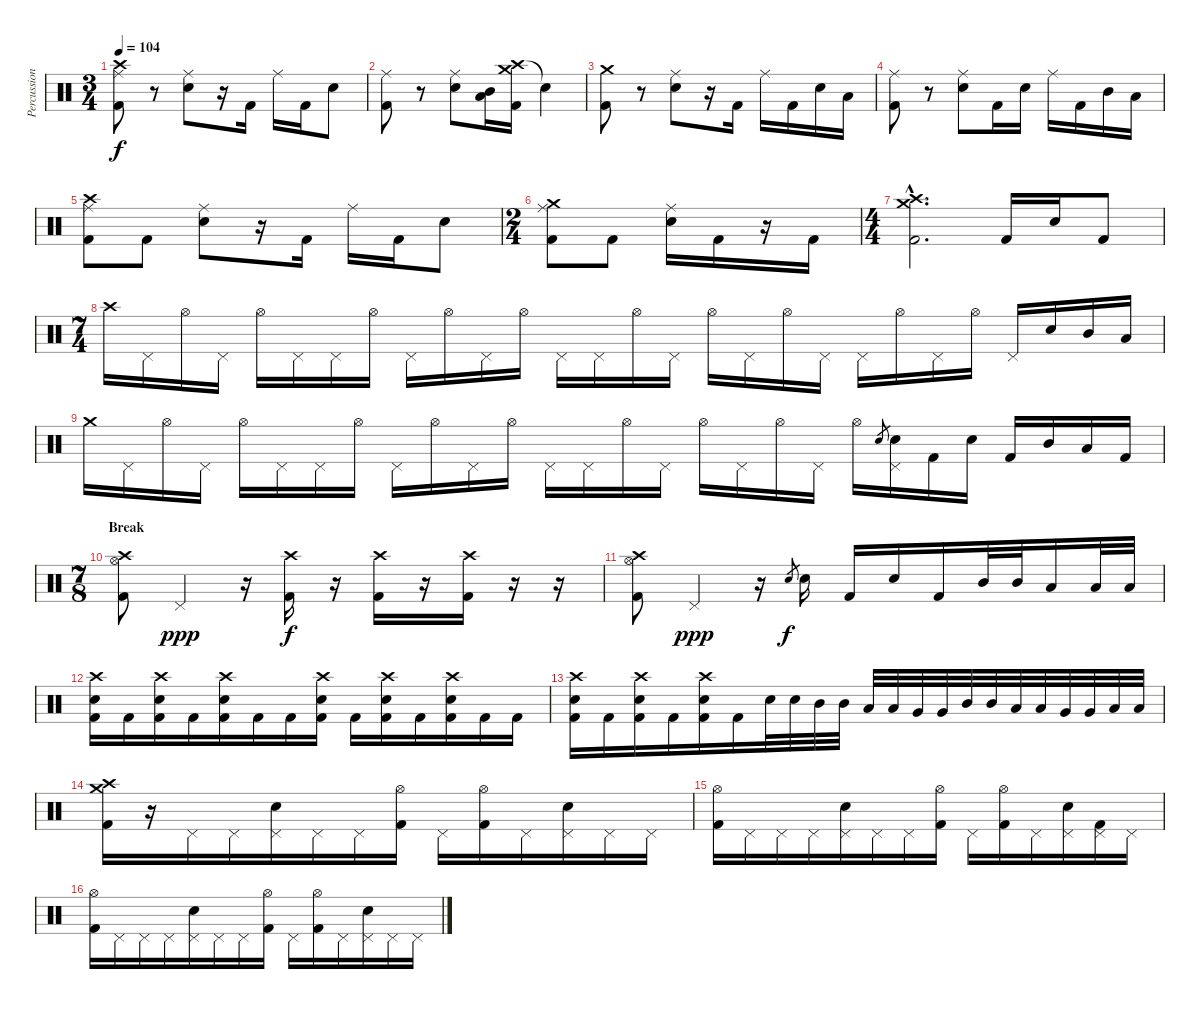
\track ("Percussions" "Percussion") {instrument percussion}
\staff {score}
\articulation defaults
\ts (3 4)
\tempo 104
\clef neutral
\ks c
("Crash high (hit)" "Ride (middle)" "Kick (hit) 2").8{dy f} r.8 ("Ride (middle)" "Electric Snare (hit)").8 r.16 "Kick (hit) 2".16 "Ride (middle)".16 "Kick (hit) 2".16 "Electric Snare (hit)".8 |
("Ride (middle)" "Kick (hit) 2").8 r.8 ("Ride (middle)" "Electric Snare (hit)").8 ("Mid Tom (hit)" "Low Tom (hit)").16 ("Crash high (hit)" "Crash medium (hit)" "Kick (hit) 2").16 "Snare (hit)"{t}.4 |
("Crash medium (hit)" "Kick (hit) 2").8 r.8 ("Ride (middle)" "Electric Snare (hit)").8 r.16 "Kick (hit) 2".16 "Ride (middle)".16 "Kick (hit) 2".16 "Electric Snare (hit)".16 "Low Tom (hit)".16 |
("Ride (middle)" "Kick (hit) 2").8 r.8 ("Ride (middle)" "Electric Snare (hit)").8 "Kick (hit) 2".16 "Electric Snare (hit)".16 "Ride (middle)".16 "Kick (hit) 2".16 "Mid Tom (hit)".16 "Low Tom (hit)".16 |
("Crash high (hit)" "Ride (middle)" "Kick (hit) 2").8 "Kick (hit) 2".8 ("Ride (middle)" "Electric Snare (hit)").8 r.16 "Kick (hit) 2".16 "Ride (middle)".16 "Kick (hit) 2".16 "Electric Snare (hit)".8 |
\ts (2 4)
("Crash medium (hit)" "Ride (middle)" "Kick (hit) 2").8 "Kick (hit) 2".8 ("Ride (middle)" "Electric Snare (hit)").16 "Kick (hit) 2".16 r.16 "Kick (hit) 2".16 |
\ts (4 4)
("Crash high (hit)"{hac} "Crash medium (hit)"{hac} "Kick (hit) 2"{hac}).2{d} "Kick (hit) 2".16 "Electric Snare (hit)".16 "Kick (hit) 2".8 |
\ts (7 4)
"Crash high (hit)".16 "Pedal Hi-Hat (hit)".16 "Hi-Hat (open)".16 "Pedal Hi-Hat (hit)".16 "Hi-Hat (open)".16 "Pedal Hi-Hat (hit)".16 "Pedal Hi-Hat (hit)".16 "Hi-Hat (open)".16 "Pedal Hi-Hat (hit)".16 "Hi-Hat (open)".16 "Pedal Hi-Hat (hit)".16 "Hi-Hat (open)".16 "Pedal Hi-Hat (hit)".16 "Pedal Hi-Hat (hit)".16 "Hi-Hat (open)".16 "Pedal Hi-Hat (hit)".16 "Hi-Hat (open)".16 "Pedal Hi-Hat (hit)".16 "Hi-Hat (open)".16 "Pedal Hi-Hat (hit)".16 "Pedal Hi-Hat (hit)".16 "Hi-Hat (open)".16 "Pedal Hi-Hat (hit)".16 "Hi-Hat (open)".16 "Pedal Hi-Hat (hit)".16 "Electric Snare (hit)".16 "Mid Tom (hit)".16 "Low Tom (hit)".16 |
"Crash medium (hit)".16 "Pedal Hi-Hat (hit)".16 "Hi-Hat (open)".16 "Pedal Hi-Hat (hit)".16 "Hi-Hat (open)".16 "Pedal Hi-Hat (hit)".16 "Pedal Hi-Hat (hit)".16 "Hi-Hat (open)".16 "Pedal Hi-Hat (hit)".16 "Hi-Hat (open)".16 "Pedal Hi-Hat (hit)".16 "Hi-Hat (open)".16 "Pedal Hi-Hat (hit)".16 "Pedal Hi-Hat (hit)".16 "Hi-Hat (open)".16 "Pedal Hi-Hat (hit)".16 "Hi-Hat (open)".16 "Pedal Hi-Hat (hit)".16 "Hi-Hat (open)".16 "Pedal Hi-Hat (hit)".16 "Hi-Hat (open)".16 "Electric Snare (hit)".8{gr} ("Pedal Hi-Hat (hit)" "Electric Snare (hit)").16 "Kick (hit) 2".16 "Electric Snare (hit)".16 "Kick (hit) 2".16 "Mid Tom (hit)".16 "Low Tom (hit)".16 "Kick (hit) 2".16 |
\ts (7 8)
\section ("" "Break")
("Crash high (hit)" "Hi-Hat (open)" "Kick (hit) 2").8 "Pedal Hi-Hat (hit)".4{dy ppp} r.16 ("Crash high (hit)" "Kick (hit) 2").16{dy f} r.16 ("Crash high (hit)" "Kick (hit) 2").16 r.16 ("Crash high (hit)" "Kick (hit) 2").16 r.16 r.16 |
("Crash high (hit)" "Hi-Hat (open)" "Kick (hit) 2").8 "Pedal Hi-Hat (hit)".4{dy ppp} r.16 "Electric Snare (hit)".8{gr dy f} "Electric Snare (hit)".16 "Kick (hit) 2".16 "Electric Snare (hit)".16 "Kick (hit) 2".16 "Mid Tom (hit)".32 "Mid Tom (hit)".32 "Low Tom (hit)".16 "Low Tom (hit)".32 "Low Tom (hit)".32 |
("Crash high (hit)" "Electric Snare (hit)" "Kick (hit) 2").16 "Kick (hit) 2".16 ("Crash high (hit)" "Electric Snare (hit)" "Kick (hit) 2").16 "Kick (hit) 2".16 ("Crash high (hit)" "Electric Snare (hit)" "Kick (hit) 2").16 "Kick (hit) 2".16 "Kick (hit) 2".16 ("Crash high (hit)" "Electric Snare (hit)" "Kick (hit) 2").16 "Kick (hit) 2".16 ("Crash high (hit)" "Electric Snare (hit)" "Kick (hit) 2").16 "Kick (hit) 2".16 ("Crash high (hit)" "Electric Snare (hit)" "Kick (hit) 2").16 "Kick (hit) 2".16 "Kick (hit) 2".16 |
("Crash high (hit)" "Electric Snare (hit)" "Kick (hit) 2").16 "Kick (hit) 2".16 ("Crash high (hit)" "Electric Snare (hit)" "Kick (hit) 2").16 "Kick (hit) 2".16 ("Crash high (hit)" "Electric Snare (hit)" "Kick (hit) 2").16 "Kick (hit) 2".16 "Electric Snare (hit)".32 "Electric Snare (hit)".32 "Mid Tom (hit)".32 "Mid Tom (hit)".32 "Low Tom (hit)".32 "Low Tom (hit)".32 "Very Low Tom (hit)".32 "Very Low Tom (hit)".32 "Mid Tom (hit)".32 "Mid Tom (hit)".32 "Low Tom (hit)".32 "Low Tom (hit)".32 "Very Low Tom (hit)".32 "Very Low Tom (hit)".32 "Low Floor Tom (hit)".32 "Low Floor Tom (hit)".32 |
("Crash medium (hit)" "Crash high (hit)" "Kick (hit) 2").16 r.16 "Pedal Hi-Hat (hit)".16 "Pedal Hi-Hat (hit)".16 ("Pedal Hi-Hat (hit)" "Electric Snare (hit)").16 "Pedal Hi-Hat (hit)".16 "Pedal Hi-Hat (hit)".16 ("Hi-Hat (open)" "Kick (hit) 2").16 "Pedal Hi-Hat (hit)".16 ("Hi-Hat (open)" "Kick (hit) 2").16 "Pedal Hi-Hat (hit)".16 ("Pedal Hi-Hat (hit)" "Electric Snare (hit)").16 "Pedal Hi-Hat (hit)".16 "Pedal Hi-Hat (hit)".16 |
("Hi-Hat (open)" "Kick (hit) 2").16 "Pedal Hi-Hat (hit)".16 "Pedal Hi-Hat (hit)".16 "Pedal Hi-Hat (hit)".16 ("Pedal Hi-Hat (hit)" "Electric Snare (hit)").16 "Pedal Hi-Hat (hit)".16 "Pedal Hi-Hat (hit)".16 ("Hi-Hat (open)" "Kick (hit) 2").16 "Pedal Hi-Hat (hit)".16 ("Hi-Hat (open)" "Kick (hit) 2").16 "Pedal Hi-Hat (hit)".16 ("Pedal Hi-Hat (hit)" "Electric Snare (hit)").16 ("Pedal Hi-Hat (hit)" "Kick (hit) 2").16 "Pedal Hi-Hat (hit)".16 |
("Hi-Hat (open)" "Kick (hit) 2").16 "Pedal Hi-Hat (hit)".16 "Pedal Hi-Hat (hit)".16 "Pedal Hi-Hat (hit)".16 ("Pedal Hi-Hat (hit)" "Electric Snare (hit)").16 "Pedal Hi-Hat (hit)".16 "Pedal Hi-Hat (hit)".16 ("Hi-Hat (open)" "Kick (hit) 2").16 "Pedal Hi-Hat (hit)".16 ("Hi-Hat (open)" "Kick (hit) 2").16 "Pedal Hi-Hat (hit)".16 ("Pedal Hi-Hat (hit)" "Electric Snare (hit)").16 "Pedal Hi-Hat (hit)".16 "Pedal Hi-Hat (hit)".16
